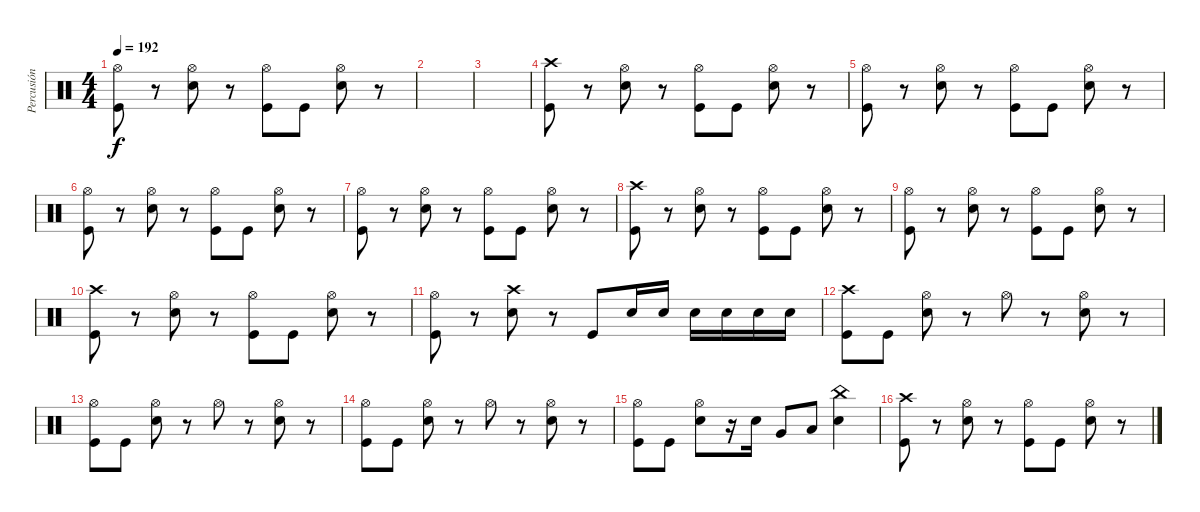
\track ("Percusión" "Percusión") {instrument percussion}
\staff {score}
\articulation defaults
\ts (4 4)
\tempo 192
\clef neutral
\ks c
("Kick (hit)" "Hi-Hat (open)").8{dy f} r.8 ("Electric Snare (hit)" "Hi-Hat (open)").8 r.8 ("Kick (hit)" "Hi-Hat (open)").8 "Kick (hit)".8 ("Electric Snare (hit)" "Hi-Hat (open)").8 r.8 |
|
|
("Kick (hit)" "Crash high (hit)").8 r.8 ("Electric Snare (hit)" "Hi-Hat (open)").8 r.8 ("Kick (hit)" "Hi-Hat (open)").8 "Kick (hit)".8 ("Electric Snare (hit)" "Hi-Hat (open)").8 r.8 |
("Kick (hit)" "Hi-Hat (open)").8 r.8 ("Electric Snare (hit)" "Hi-Hat (open)").8 r.8 ("Kick (hit)" "Hi-Hat (open)").8 "Kick (hit)".8 ("Electric Snare (hit)" "Hi-Hat (open)").8 r.8 |
("Kick (hit)" "Hi-Hat (open)").8 r.8 ("Electric Snare (hit)" "Hi-Hat (open)").8 r.8 ("Kick (hit)" "Hi-Hat (open)").8 "Kick (hit)".8 ("Electric Snare (hit)" "Hi-Hat (open)").8 r.8 |
("Kick (hit)" "Hi-Hat (open)").8 r.8 ("Electric Snare (hit)" "Hi-Hat (open)").8 r.8 ("Kick (hit)" "Hi-Hat (open)").8 "Kick (hit)".8 ("Electric Snare (hit)" "Hi-Hat (open)").8 r.8 |
("Kick (hit)" "Crash high (hit)").8 r.8 ("Electric Snare (hit)" "Hi-Hat (open)").8 r.8 ("Kick (hit)" "Hi-Hat (open)").8 "Kick (hit)".8 ("Electric Snare (hit)" "Hi-Hat (open)").8 r.8 |
("Kick (hit)" "Hi-Hat (open)").8 r.8 ("Electric Snare (hit)" "Hi-Hat (open)").8 r.8 ("Kick (hit)" "Hi-Hat (open)").8 "Kick (hit)".8 ("Electric Snare (hit)" "Hi-Hat (open)").8 r.8 |
("Kick (hit)" "Crash high (hit)").8 r.8 ("Electric Snare (hit)" "Hi-Hat (open)").8 r.8 ("Kick (hit)" "Hi-Hat (open)").8 "Kick (hit)".8 ("Electric Snare (hit)" "Hi-Hat (open)").8 r.8 |
("Kick (hit)" "Hi-Hat (open)").8 r.8 ("Electric Snare (hit)" "Crash high (hit)").8 r.8 "Kick (hit)".8 "Electric Snare (hit)".16 "Electric Snare (hit)".16 "Electric Snare (hit)".16 "Electric Snare (hit)".16 "Electric Snare (hit)".16 "Electric Snare (hit)".16 |
("Kick (hit)" "Crash high (hit)").8 "Kick (hit)".8 ("Electric Snare (hit)" "Hi-Hat (open)").8 r.8 "Hi-Hat (open)".8 r.8 ("Electric Snare (hit)" "Hi-Hat (open)").8 r.8 |
("Kick (hit)" "Hi-Hat (open)").8 "Kick (hit)".8 ("Electric Snare (hit)" "Hi-Hat (open)").8 r.8 "Hi-Hat (open)".8 r.8 ("Electric Snare (hit)" "Hi-Hat (open)").8 r.8 |
("Kick (hit)" "Hi-Hat (open)").8 "Kick (hit)".8 ("Electric Snare (hit)" "Hi-Hat (open)").8 r.8 "Hi-Hat (open)".8 r.8 ("Electric Snare (hit)" "Hi-Hat (open)").8 r.8 |
("Kick (hit)" "Hi-Hat (open)").8 "Kick (hit)".8 ("Electric Snare (hit)" "Hi-Hat (open)").8 r.16 "Electric Snare (hit)".16 "Very Low Tom (hit)".8 "Low Floor Tom (hit)".8 ("Electric Snare (hit)" "China (hit)").4 |
("Kick (hit)" "Crash high (hit)").8 r.8 ("Electric Snare (hit)" "Hi-Hat (open)").8 r.8 ("Kick (hit)" "Hi-Hat (open)").8 "Kick (hit)".8 ("Electric Snare (hit)" "Hi-Hat (open)").8 r.8
